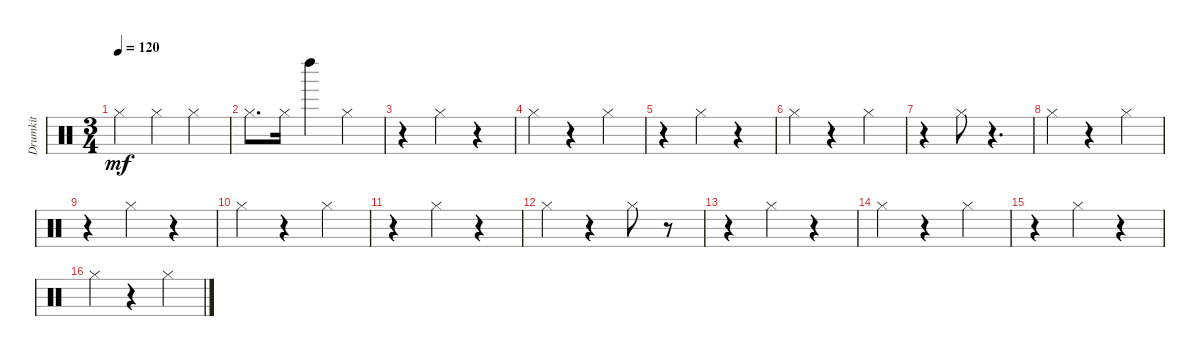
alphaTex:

\track ("Drumkit" "Drumkit") {instrument percussion}
\staff {score}
\articulation defaults
\ts (3 4)
\tempo 120
\clef neutral
\ks aminor "Hi-Hat (closed)".4{dy mf} "Hi-Hat (closed)".4 "Hi-Hat (closed)".4
|
"Hi-Hat (closed)".8{d} "Hi-Hat (closed)".16 "Left Maraca (hit)".4 "Hi-Hat (closed)".4 |
r.4 "Hi-Hat (closed)".4 r.4 |
"Hi-Hat (closed)".4 r.4 "Hi-Hat (closed)".4 |
r.4 "Hi-Hat (closed)".4 r.4 |
"Hi-Hat (closed)".4 r.4 "Hi-Hat (closed)".4 |
r.4 "Hi-Hat (closed)".8 r.4{d} |
"Hi-Hat (closed)".4 r.4 "Hi-Hat (closed)".4 |
r.4 "Hi-Hat (closed)".4 r.4 |
"Hi-Hat (closed)".4 r.4 "Hi-Hat (closed)".4 |
r.4 "Hi-Hat (closed)".4 r.4 |
"Hi-Hat (closed)".4 r.4 "Hi-Hat (closed)".8 r.8 |
r.4 "Hi-Hat (closed)".4 r.4 |
"Hi-Hat (closed)".4 r.4 "Hi-Hat (closed)".4 |
r.4 "Hi-Hat (closed)".4 r.4 |
"Hi-Hat (closed)".4 r.4 "Hi-Hat (closed)".4
